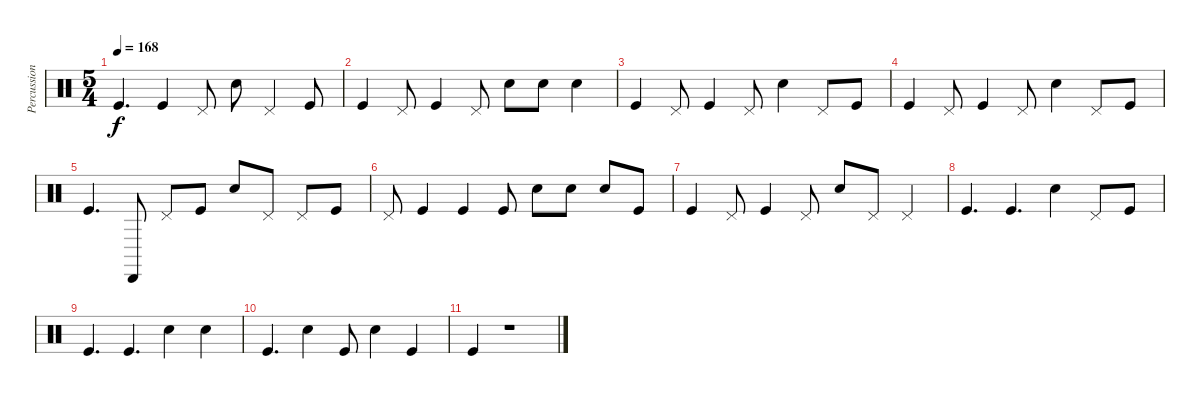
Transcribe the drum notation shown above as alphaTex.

\track ("Percussion" "Percussion") {instrument percussion}
\staff {score}
\articulation defaults
\ts (5 4)
\tempo 168
\clef neutral
\ks c "Kick (hit)".4{d dy f} "Kick (hit)".4 "Pedal Hi-Hat (hit)".8 "Snare (hit) 2".8 "Pedal Hi-Hat (hit)".4 "Kick (hit)".8
|
"Kick (hit)".4 "Pedal Hi-Hat (hit)".8 "Kick (hit)".4 "Pedal Hi-Hat (hit)".8 "Snare (hit) 2".8 "Snare (hit) 2".8 "Snare (hit) 2".4 |
"Kick (hit)".4 "Pedal Hi-Hat (hit)".8 "Kick (hit)".4 "Pedal Hi-Hat (hit)".8 "Snare (hit) 2".4 "Pedal Hi-Hat (hit)".8 "Kick (hit)".8 |
"Kick (hit)".4 "Pedal Hi-Hat (hit)".8 "Kick (hit)".4 "Pedal Hi-Hat (hit)".8 "Snare (hit) 2".4 "Pedal Hi-Hat (hit)".8 "Kick (hit)".8 |
"Kick (hit)".4{d} "Cabasa (hit)".8 "Pedal Hi-Hat (hit)".8 "Kick (hit)".8 "Snare (hit) 2".8 "Pedal Hi-Hat (hit)".8 "Pedal Hi-Hat (hit)".8 "Kick (hit)".8 |
"Pedal Hi-Hat (hit)".8 "Kick (hit)".4 "Kick (hit)".4 "Kick (hit)".8 "Snare (hit) 2".8 "Snare (hit) 2".8 "Snare (hit) 2".8 "Kick (hit)".8 |
"Kick (hit)".4 "Pedal Hi-Hat (hit)".8 "Kick (hit)".4 "Pedal Hi-Hat (hit)".8 "Snare (hit) 2".8 "Pedal Hi-Hat (hit)".8 "Pedal Hi-Hat (hit)".4 |
"Kick (hit)".4{d} "Kick (hit)".4{d} "Snare (hit) 2".4 "Pedal Hi-Hat (hit)".8 "Kick (hit)".8 |
"Kick (hit)".4{d} "Kick (hit)".4{d} "Snare (hit) 2".4 "Snare (hit) 2".4 |
"Kick (hit)".4{d} "Snare (hit) 2".4 "Kick (hit)".8 "Snare (hit) 2".4 "Kick (hit)".4 |
"Kick (hit)".4 r.1
